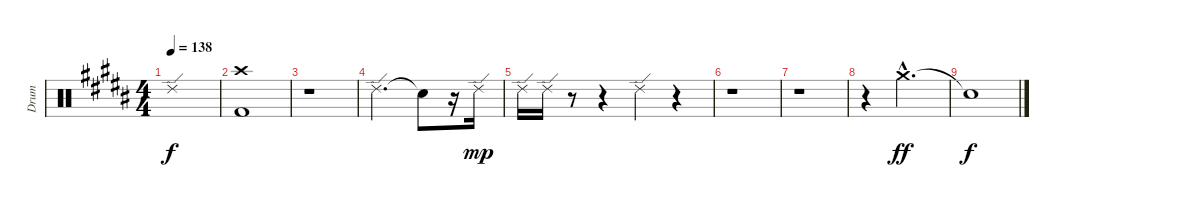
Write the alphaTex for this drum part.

\track ("Drum" "Drum") {instrument percussion}
\staff {score}
\articulation defaults
\ts (4 4)
\tempo 138
\clef neutral
\ks g#minor "Ride (edge) 2".1{dy f}
|
\ks b
("Crash high (hit)" "Kick (hit) 2").1 |
\ks g#minor
r.1 |
"Ride (edge) 2".2{d} "Snare (hit)"{t}.8 r.16 "Ride (edge) 2".16{dy mp} |
"Ride (edge) 2".16 "Ride (edge) 2".16 r.8 r.4 "Ride (edge) 2".4 r.4 |
\ks b
r.1 |
\ks g#minor
r.1 |
\ks b
r.4 "Crash medium (hit)"{hac}.2{d dy ff} |
\ks g#minor "Snare (hit)"{t}.1{dy f}
